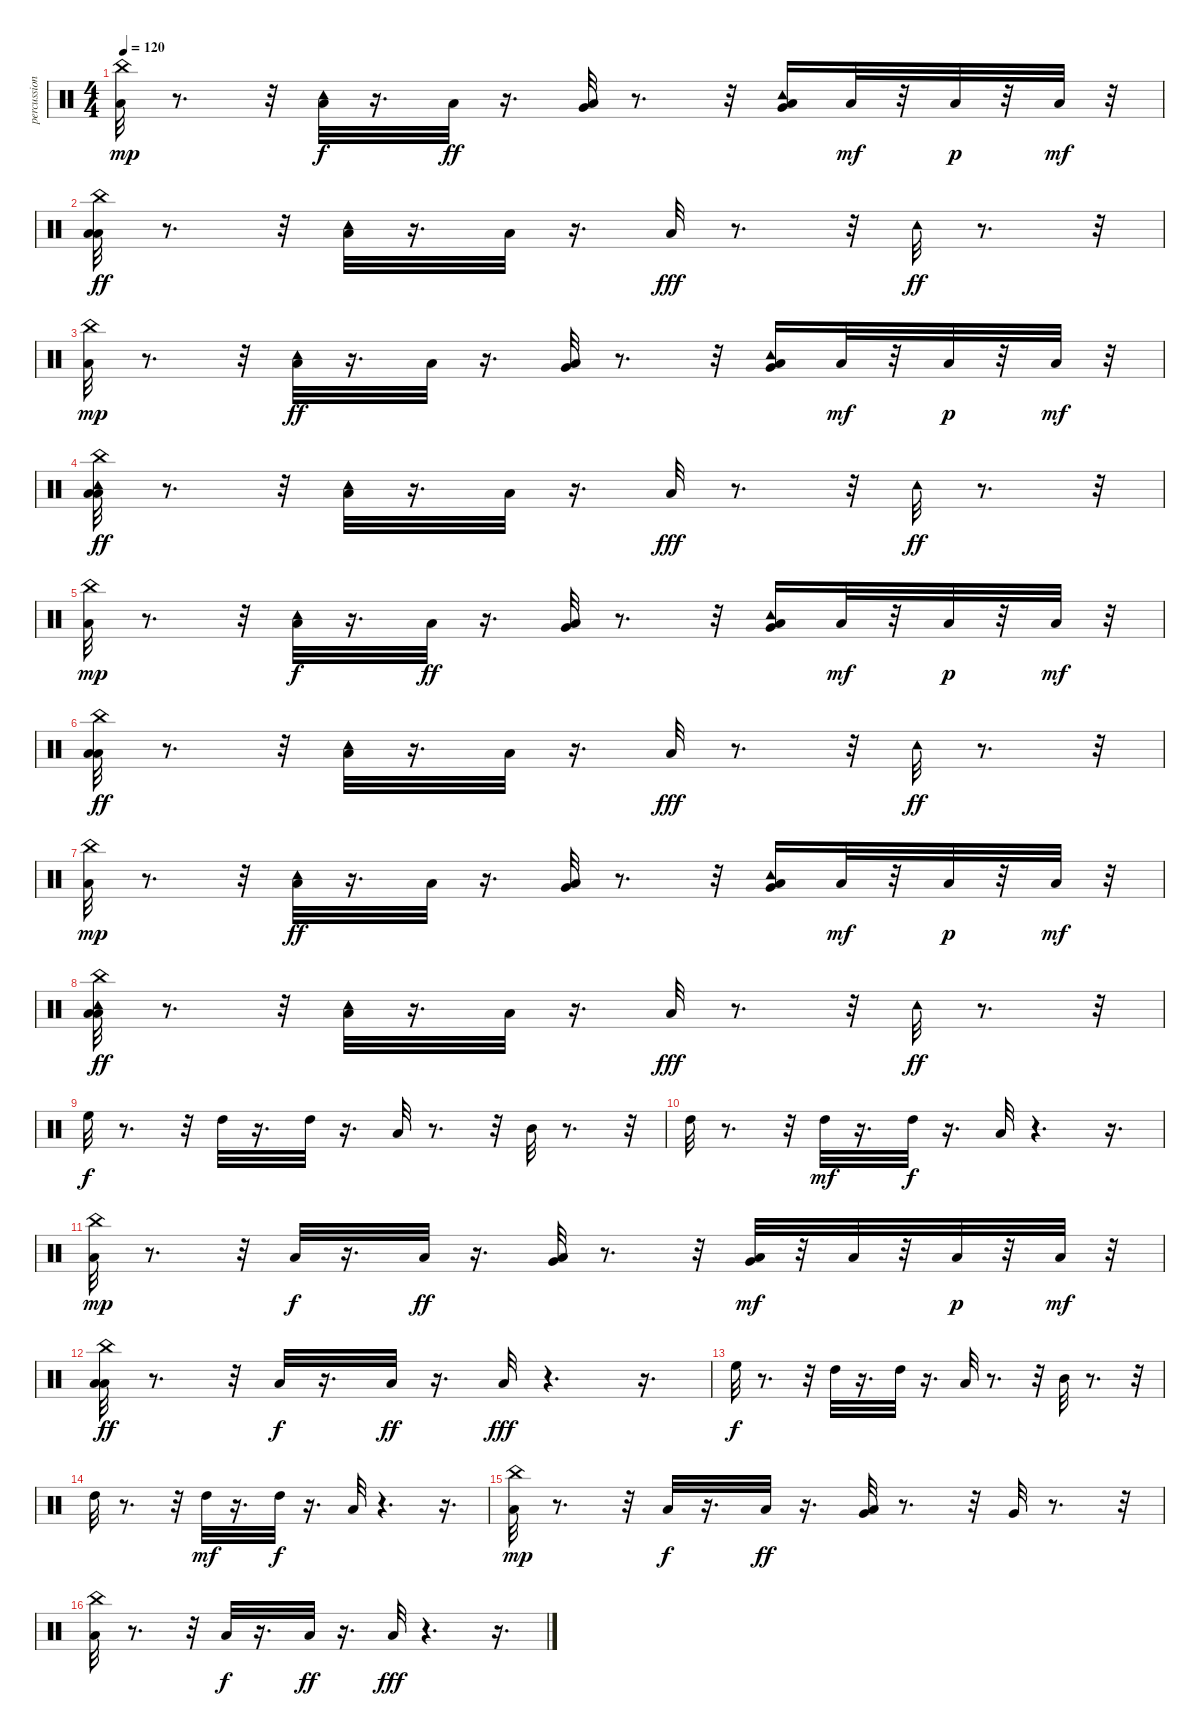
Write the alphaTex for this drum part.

\track ("percussion" "percussion") {instrument percussion}
\staff {score}
\articulation defaults
\ts (4 4)
\tempo 120
\clef neutral
\ks c
("Low Floor Tom (hit)" "China (hit)").32{dy mp} r.8{d} r.32 ("Low Floor Tom (hit)" "Tambourine (hit)").32{dy f} r.16{d} "Low Floor Tom (hit)".32{dy ff} r.16{d} ("Low Floor Tom (hit)" "Very Low Tom (hit)").32 r.8{d} r.32 ("Very Low Tom (hit)" "Low Floor Tom (hit)" "Tambourine (hit)").16 "Low Floor Tom (hit)".32{dy mf} r.32 "Low Floor Tom (hit)".32{dy p} r.32 "Low Floor Tom (hit)".32{dy mf} r.32 |
("Low Floor Tom (hit)" "China (hit)" "Low Floor Tom (hit)").32{dy ff} r.8{d} r.32 ("Low Floor Tom (hit)" "Tambourine (hit)").32 r.16{d} "Low Floor Tom (hit)".32 r.16{d} "Low Floor Tom (hit)".32{dy fff} r.8{d} r.32 "Tambourine (hit)".32{dy ff} r.8{d} r.32 |
("Low Floor Tom (hit)" "China (hit)").32{dy mp} r.8{d} r.32 ("Low Floor Tom (hit)" "Tambourine (hit)").32{dy ff} r.16{d} "Low Floor Tom (hit)".32 r.16{d} ("Low Floor Tom (hit)" "Very Low Tom (hit)").32 r.8{d} r.32 ("Very Low Tom (hit)" "Low Floor Tom (hit)" "Tambourine (hit)").16 "Low Floor Tom (hit)".32{dy mf} r.32 "Low Floor Tom (hit)".32{dy p} r.32 "Low Floor Tom (hit)".32{dy mf} r.32 |
("Low Floor Tom (hit)" "China (hit)" "Low Floor Tom (hit)" "Tambourine (hit)").32{dy ff} r.8{d} r.32 ("Low Floor Tom (hit)" "Tambourine (hit)").32 r.16{d} "Low Floor Tom (hit)".32 r.16{d} "Low Floor Tom (hit)".32{dy fff} r.8{d} r.32 "Tambourine (hit)".32{dy ff} r.8{d} r.32 |
("Low Floor Tom (hit)" "China (hit)").32{dy mp} r.8{d} r.32 ("Low Floor Tom (hit)" "Tambourine (hit)").32{dy f} r.16{d} "Low Floor Tom (hit)".32{dy ff} r.16{d} ("Low Floor Tom (hit)" "Very Low Tom (hit)").32 r.8{d} r.32 ("Very Low Tom (hit)" "Low Floor Tom (hit)" "Tambourine (hit)").16 "Low Floor Tom (hit)".32{dy mf} r.32 "Low Floor Tom (hit)".32{dy p} r.32 "Low Floor Tom (hit)".32{dy mf} r.32 |
("Low Floor Tom (hit)" "China (hit)" "Low Floor Tom (hit)").32{dy ff} r.8{d} r.32 ("Low Floor Tom (hit)" "Tambourine (hit)").32 r.16{d} "Low Floor Tom (hit)".32 r.16{d} "Low Floor Tom (hit)".32{dy fff} r.8{d} r.32 "Tambourine (hit)".32{dy ff} r.8{d} r.32 |
("Low Floor Tom (hit)" "China (hit)").32{dy mp} r.8{d} r.32 ("Low Floor Tom (hit)" "Tambourine (hit)").32{dy ff} r.16{d} "Low Floor Tom (hit)".32 r.16{d} ("Low Floor Tom (hit)" "Very Low Tom (hit)").32 r.8{d} r.32 ("Very Low Tom (hit)" "Low Floor Tom (hit)" "Tambourine (hit)").16 "Low Floor Tom (hit)".32{dy mf} r.32 "Low Floor Tom (hit)".32{dy p} r.32 "Low Floor Tom (hit)".32{dy mf} r.32 |
("Low Floor Tom (hit)" "China (hit)" "Low Floor Tom (hit)" "Tambourine (hit)").32{dy ff} r.8{d} r.32 ("Low Floor Tom (hit)" "Tambourine (hit)").32 r.16{d} "Low Floor Tom (hit)".32 r.16{d} "Low Floor Tom (hit)".32{dy fff} r.8{d} r.32 "Tambourine (hit)".32{dy ff} r.8{d} r.32 |
"High Floor Tom (hit)".32{dy f} r.8{d} r.32 "High Tom (hit)".32 r.16{d} "High Tom (hit)".32 r.16{d} "Low Tom (hit)".32 r.8{d} r.32 "Mid Tom (hit)".32 r.8{d} r.32 |
"High Tom (hit)".32 r.8{d} r.32 "High Tom (hit)".32{dy mf} r.16{d} "High Tom (hit)".32{dy f} r.16{d} "Low Tom (hit)".32 r.4{d} r.16{d} |
("Low Floor Tom (hit)" "China (hit)").32{dy mp} r.8{d} r.32 "Low Floor Tom (hit)".32{dy f} r.16{d} "Low Floor Tom (hit)".32{dy ff} r.16{d} ("Low Floor Tom (hit)" "Very Low Tom (hit)").32 r.8{d} r.32 ("Very Low Tom (hit)" "Low Floor Tom (hit)").32{dy mf} r.32 "Low Floor Tom (hit)".32 r.32 "Low Floor Tom (hit)".32{dy p} r.32 "Low Floor Tom (hit)".32{dy mf} r.32 |
("Low Floor Tom (hit)" "China (hit)" "Low Floor Tom (hit)").32{dy ff} r.8{d} r.32 "Low Floor Tom (hit)".32{dy f} r.16{d} "Low Floor Tom (hit)".32{dy ff} r.16{d} "Low Floor Tom (hit)".32{dy fff} r.4{d} r.16{d} |
"High Floor Tom (hit)".32{dy f} r.8{d} r.32 "High Tom (hit)".32 r.16{d} "High Tom (hit)".32 r.16{d} "Low Tom (hit)".32 r.8{d} r.32 "Mid Tom (hit)".32 r.8{d} r.32 |
"High Tom (hit)".32 r.8{d} r.32 "High Tom (hit)".32{dy mf} r.16{d} "High Tom (hit)".32{dy f} r.16{d} "Low Tom (hit)".32 r.4{d} r.16{d} |
("Low Floor Tom (hit)" "China (hit)").32{dy mp} r.8{d} r.32 "Low Floor Tom (hit)".32{dy f} r.16{d} "Low Floor Tom (hit)".32{dy ff} r.16{d} ("Low Floor Tom (hit)" "Very Low Tom (hit)").32 r.8{d} r.32 "Very Low Tom (hit)".32 r.8{d} r.32 |
("Low Floor Tom (hit)" "China (hit)").32 r.8{d} r.32 "Low Floor Tom (hit)".32{dy f} r.16{d} "Low Floor Tom (hit)".32{dy ff} r.16{d} "Low Floor Tom (hit)".32{dy fff} r.4{d} r.16{d}
